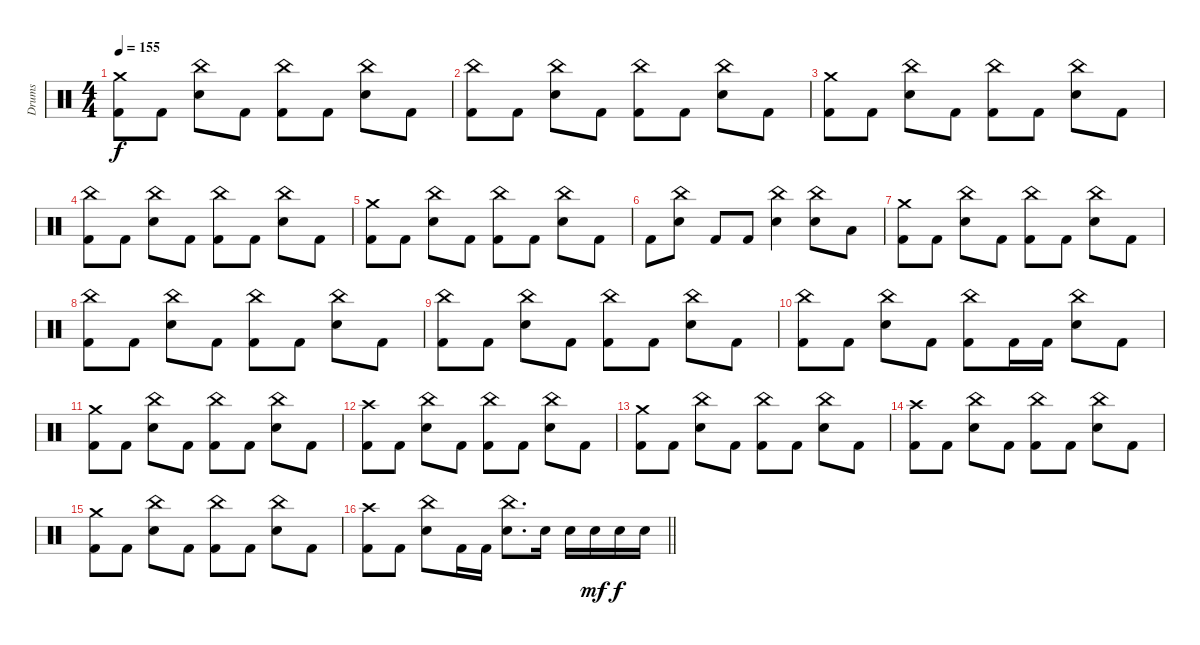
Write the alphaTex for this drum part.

\track ("Drums" "Drums") {instrument percussion}
\staff {score}
\articulation defaults
\ts (4 4)
\tempo 155
\clef neutral
\ks c
("Kick (hit) 2" "Crash medium (hit)").8{dy f} "Kick (hit) 2".8 ("China (hit)" "Electric Snare (hit)").8 "Kick (hit) 2".8 ("Kick (hit) 2" "China (hit)").8 "Kick (hit) 2".8 ("China (hit)" "Electric Snare (hit)").8 "Kick (hit) 2".8 |
("Kick (hit) 2" "China (hit)").8 "Kick (hit) 2".8 ("China (hit)" "Electric Snare (hit)").8 "Kick (hit) 2".8 ("Kick (hit) 2" "China (hit)").8 "Kick (hit) 2".8 ("China (hit)" "Electric Snare (hit)").8 "Kick (hit) 2".8 |
("Kick (hit) 2" "Crash medium (hit)").8 "Kick (hit) 2".8 ("China (hit)" "Electric Snare (hit)").8 "Kick (hit) 2".8 ("Kick (hit) 2" "China (hit)").8 "Kick (hit) 2".8 ("China (hit)" "Electric Snare (hit)").8 "Kick (hit) 2".8 |
("Kick (hit) 2" "China (hit)").8 "Kick (hit) 2".8 ("China (hit)" "Electric Snare (hit)").8 "Kick (hit) 2".8 ("Kick (hit) 2" "China (hit)").8 "Kick (hit) 2".8 ("China (hit)" "Electric Snare (hit)").8 "Kick (hit) 2".8 |
("Kick (hit) 2" "Crash medium (hit)").8 "Kick (hit) 2".8 ("China (hit)" "Electric Snare (hit)").8 "Kick (hit) 2".8 ("Kick (hit) 2" "China (hit)").8 "Kick (hit) 2".8 ("China (hit)" "Electric Snare (hit)").8 "Kick (hit) 2".8 |
"Kick (hit) 2".8 ("China (hit)" "Electric Snare (hit)").8 "Kick (hit) 2".8 "Kick (hit) 2".8 ("China (hit)" "Electric Snare (hit)").4 ("China (hit)" "Electric Snare (hit)").8 "Low Tom (hit)".8 |
("Kick (hit) 2" "Crash medium (hit)").8 "Kick (hit) 2".8 ("China (hit)" "Electric Snare (hit)").8 "Kick (hit) 2".8 ("Kick (hit) 2" "China (hit)").8 "Kick (hit) 2".8 ("China (hit)" "Electric Snare (hit)").8 "Kick (hit) 2".8 |
("Kick (hit) 2" "China (hit)").8 "Kick (hit) 2".8 ("China (hit)" "Electric Snare (hit)").8 "Kick (hit) 2".8 ("Kick (hit) 2" "China (hit)").8 "Kick (hit) 2".8 ("China (hit)" "Electric Snare (hit)").8 "Kick (hit) 2".8 |
("Kick (hit) 2" "China (hit)").8 "Kick (hit) 2".8 ("China (hit)" "Electric Snare (hit)").8 "Kick (hit) 2".8 ("Kick (hit) 2" "China (hit)").8 "Kick (hit) 2".8 ("China (hit)" "Electric Snare (hit)").8 "Kick (hit) 2".8 |
("Kick (hit) 2" "China (hit)").8 "Kick (hit) 2".8 ("China (hit)" "Electric Snare (hit)").8 "Kick (hit) 2".8 ("Kick (hit) 2" "China (hit)").8 "Kick (hit) 2".16 "Kick (hit) 2".16 ("China (hit)" "Electric Snare (hit)").8 "Kick (hit) 2".8 |
("Kick (hit) 2" "Crash medium (hit)").8 "Kick (hit) 2".8 ("China (hit)" "Electric Snare (hit)").8 "Kick (hit) 2".8 ("Kick (hit) 2" "China (hit)").8 "Kick (hit) 2".8 ("China (hit)" "Electric Snare (hit)").8 "Kick (hit) 2".8 |
("Kick (hit) 2" "Crash high (hit)").8 "Kick (hit) 2".8 ("China (hit)" "Electric Snare (hit)").8 "Kick (hit) 2".8 ("Kick (hit) 2" "China (hit)").8 "Kick (hit) 2".8 ("China (hit)" "Electric Snare (hit)").8 "Kick (hit) 2".8 |
("Kick (hit) 2" "Crash medium (hit)").8 "Kick (hit) 2".8 ("China (hit)" "Electric Snare (hit)").8 "Kick (hit) 2".8 ("Kick (hit) 2" "China (hit)").8 "Kick (hit) 2".8 ("China (hit)" "Electric Snare (hit)").8 "Kick (hit) 2".8 |
("Kick (hit) 2" "Crash high (hit)").8 "Kick (hit) 2".8 ("China (hit)" "Electric Snare (hit)").8 "Kick (hit) 2".8 ("Kick (hit) 2" "China (hit)").8 "Kick (hit) 2".8 ("China (hit)" "Electric Snare (hit)").8 "Kick (hit) 2".8 |
("Kick (hit) 2" "Crash medium (hit)").8 "Kick (hit) 2".8 ("China (hit)" "Electric Snare (hit)").8 "Kick (hit) 2".8 ("Kick (hit) 2" "China (hit)").8 "Kick (hit) 2".8 ("China (hit)" "Electric Snare (hit)").8 "Kick (hit) 2".8 |
\barLineRight lightlight
("Kick (hit) 2" "Crash high (hit)").8 "Kick (hit) 2".8 ("China (hit)" "Electric Snare (hit)").8 "Kick (hit) 2".16 "Kick (hit) 2".16 ("China (hit)" "Electric Snare (hit)").8{d} "Electric Snare (hit)".16 "Electric Snare (hit)".16 "Electric Snare (hit)".16{dy mf} "Electric Snare (hit)".16{dy f} "Electric Snare (hit)".16
